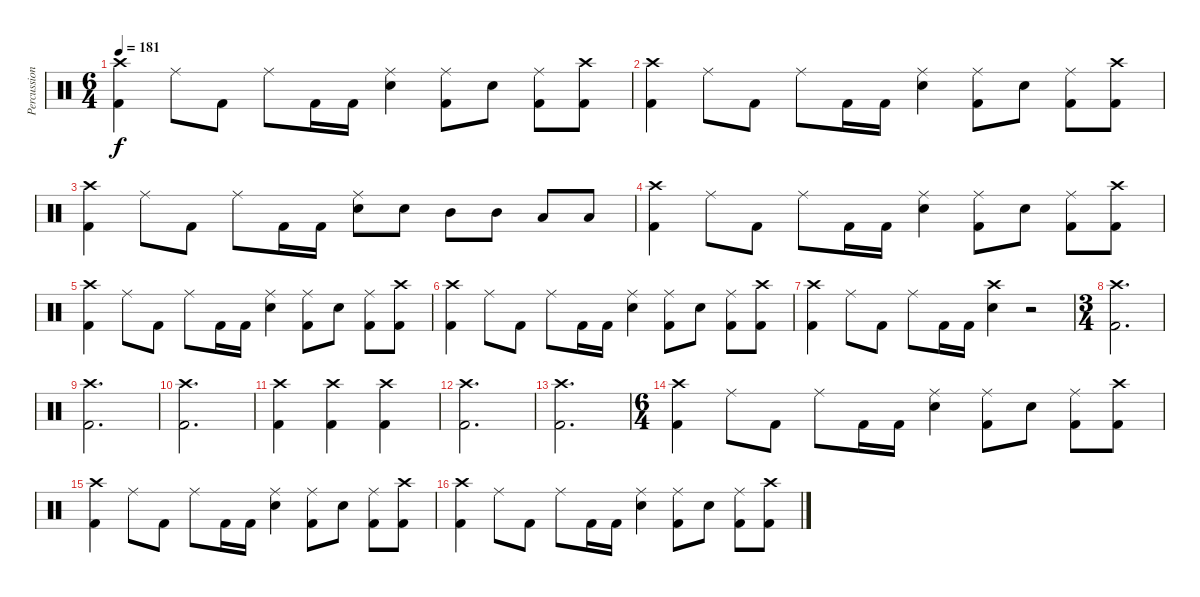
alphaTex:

\track ("Percussion" "Percussion") {instrument percussion}
\staff {score}
\articulation defaults
\ts (6 4)
\tempo 181
\clef neutral
\ks c
("Kick (hit) 2" "Crash high (hit)").4{dy f} "Ride (middle)".8 "Kick (hit) 2".8 "Ride (middle)".8 "Kick (hit) 2".16 "Kick (hit) 2".16 ("Electric Snare (hit)" "Ride (middle)").4 ("Ride (middle)" "Kick (hit) 2").8 "Electric Snare (hit)".8 ("Ride (middle)" "Kick (hit) 2").8 ("Kick (hit) 2" "Crash high (hit)").8 |
("Kick (hit) 2" "Crash high (hit)").4 "Ride (middle)".8 "Kick (hit) 2".8 "Ride (middle)".8 "Kick (hit) 2".16 "Kick (hit) 2".16 ("Electric Snare (hit)" "Ride (middle)").4 ("Ride (middle)" "Kick (hit) 2").8 "Electric Snare (hit)".8 ("Ride (middle)" "Kick (hit) 2").8 ("Kick (hit) 2" "Crash high (hit)").8 |
("Kick (hit) 2" "Crash high (hit)").4 "Ride (middle)".8 "Kick (hit) 2".8 "Ride (middle)".8 "Kick (hit) 2".16 "Kick (hit) 2".16 ("Electric Snare (hit)" "Ride (middle)").8 "Electric Snare (hit)".8 "Mid Tom (hit)".8 "Mid Tom (hit)".8 "Low Tom (hit)".8 "Low Tom (hit)".8 |
("Kick (hit) 2" "Crash high (hit)").4 "Ride (middle)".8 "Kick (hit) 2".8 "Ride (middle)".8 "Kick (hit) 2".16 "Kick (hit) 2".16 ("Electric Snare (hit)" "Ride (middle)").4 ("Ride (middle)" "Kick (hit) 2").8 "Electric Snare (hit)".8 ("Ride (middle)" "Kick (hit) 2").8 ("Kick (hit) 2" "Crash high (hit)").8 |
("Kick (hit) 2" "Crash high (hit)").4 "Ride (middle)".8 "Kick (hit) 2".8 "Ride (middle)".8 "Kick (hit) 2".16 "Kick (hit) 2".16 ("Electric Snare (hit)" "Ride (middle)").4 ("Ride (middle)" "Kick (hit) 2").8 "Electric Snare (hit)".8 ("Ride (middle)" "Kick (hit) 2").8 ("Kick (hit) 2" "Crash high (hit)").8 |
("Kick (hit) 2" "Crash high (hit)").4 "Ride (middle)".8 "Kick (hit) 2".8 "Ride (middle)".8 "Kick (hit) 2".16 "Kick (hit) 2".16 ("Electric Snare (hit)" "Ride (middle)").4 ("Ride (middle)" "Kick (hit) 2").8 "Electric Snare (hit)".8 ("Ride (middle)" "Kick (hit) 2").8 ("Kick (hit) 2" "Crash high (hit)").8 |
("Kick (hit) 2" "Crash high (hit)").4 "Ride (middle)".8 "Kick (hit) 2".8 "Ride (middle)".8 "Kick (hit) 2".16 "Kick (hit) 2".16 ("Electric Snare (hit)" "Crash high (hit)").4 r.2 |
\ts (3 4)
("Crash high (hit)" "Kick (hit) 2").2{d} |
("Kick (hit) 2" "Crash high (hit)").2{d} |
("Crash high (hit)" "Kick (hit) 2").2{d} |
("Kick (hit) 2" "Crash high (hit)").4 ("Kick (hit) 2" "Crash high (hit)").4 ("Kick (hit) 2" "Crash high (hit)").4 |
("Kick (hit) 2" "Crash high (hit)").2{d} |
("Kick (hit) 2" "Crash high (hit)").2{d} |
\ts (6 4)
("Kick (hit) 2" "Crash high (hit)").4 "Ride (middle)".8 "Kick (hit) 2".8 "Ride (middle)".8 "Kick (hit) 2".16 "Kick (hit) 2".16 ("Electric Snare (hit)" "Ride (middle)").4 ("Ride (middle)" "Kick (hit) 2").8 "Electric Snare (hit)".8 ("Ride (middle)" "Kick (hit) 2").8 ("Kick (hit) 2" "Crash high (hit)").8 |
("Kick (hit) 2" "Crash high (hit)").4 "Ride (middle)".8 "Kick (hit) 2".8 "Ride (middle)".8 "Kick (hit) 2".16 "Kick (hit) 2".16 ("Electric Snare (hit)" "Ride (middle)").4 ("Ride (middle)" "Kick (hit) 2").8 "Electric Snare (hit)".8 ("Ride (middle)" "Kick (hit) 2").8 ("Kick (hit) 2" "Crash high (hit)").8 |
("Kick (hit) 2" "Crash high (hit)").4 "Ride (middle)".8 "Kick (hit) 2".8 "Ride (middle)".8 "Kick (hit) 2".16 "Kick (hit) 2".16 ("Electric Snare (hit)" "Ride (middle)").4 ("Ride (middle)" "Kick (hit) 2").8 "Electric Snare (hit)".8 ("Ride (middle)" "Kick (hit) 2").8 ("Kick (hit) 2" "Crash high (hit)").8
